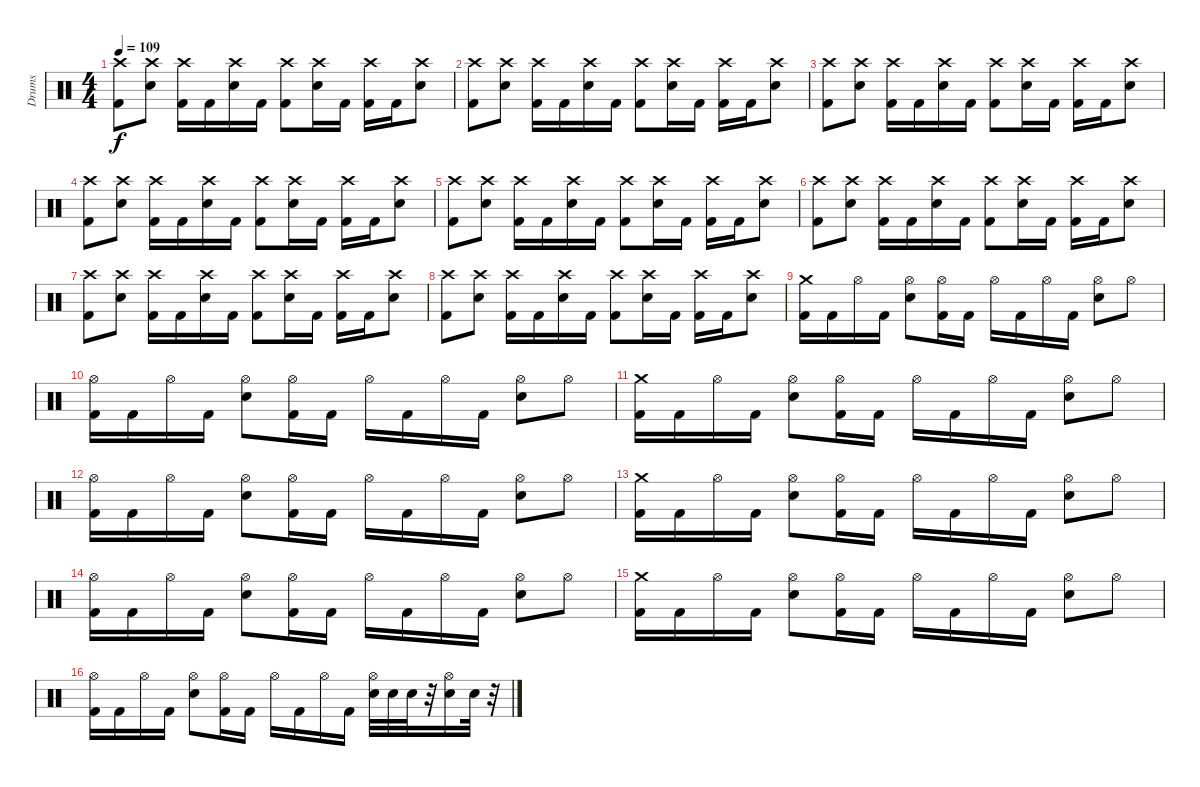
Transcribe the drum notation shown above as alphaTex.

\track ("Drums" "Drums") {instrument percussion}
\staff {score}
\articulation defaults
\ts (4 4)
\tempo 109
\clef neutral
\ks c
("Kick (hit) 2" "Crash high (hit)").8{dy f} ("Electric Snare (hit)" "Crash high (hit)").8 ("Kick (hit) 2" "Crash high (hit)").16 "Kick (hit) 2".16 ("Electric Snare (hit)" "Crash high (hit)").16 "Kick (hit) 2".16 ("Kick (hit) 2" "Crash high (hit)").8 ("Electric Snare (hit)" "Crash high (hit)").16 "Kick (hit) 2".16 ("Kick (hit) 2" "Crash high (hit)").16 "Kick (hit) 2".16 ("Electric Snare (hit)" "Crash high (hit)").8 |
("Kick (hit) 2" "Crash high (hit)").8 ("Electric Snare (hit)" "Crash high (hit)").8 ("Kick (hit) 2" "Crash high (hit)").16 "Kick (hit) 2".16 ("Electric Snare (hit)" "Crash high (hit)").16 "Kick (hit) 2".16 ("Kick (hit) 2" "Crash high (hit)").8 ("Electric Snare (hit)" "Crash high (hit)").16 "Kick (hit) 2".16 ("Kick (hit) 2" "Crash high (hit)").16 "Kick (hit) 2".16 ("Electric Snare (hit)" "Crash high (hit)").8 |
("Kick (hit) 2" "Crash high (hit)").8 ("Electric Snare (hit)" "Crash high (hit)").8 ("Kick (hit) 2" "Crash high (hit)").16 "Kick (hit) 2".16 ("Electric Snare (hit)" "Crash high (hit)").16 "Kick (hit) 2".16 ("Kick (hit) 2" "Crash high (hit)").8 ("Electric Snare (hit)" "Crash high (hit)").16 "Kick (hit) 2".16 ("Kick (hit) 2" "Crash high (hit)").16 "Kick (hit) 2".16 ("Electric Snare (hit)" "Crash high (hit)").8 |
("Kick (hit) 2" "Crash high (hit)").8 ("Electric Snare (hit)" "Crash high (hit)").8 ("Kick (hit) 2" "Crash high (hit)").16 "Kick (hit) 2".16 ("Electric Snare (hit)" "Crash high (hit)").16 "Kick (hit) 2".16 ("Kick (hit) 2" "Crash high (hit)").8 ("Electric Snare (hit)" "Crash high (hit)").16 "Kick (hit) 2".16 ("Kick (hit) 2" "Crash high (hit)").16 "Kick (hit) 2".16 ("Electric Snare (hit)" "Crash high (hit)").8 |
("Kick (hit) 2" "Crash high (hit)").8 ("Electric Snare (hit)" "Crash high (hit)").8 ("Kick (hit) 2" "Crash high (hit)").16 "Kick (hit) 2".16 ("Electric Snare (hit)" "Crash high (hit)").16 "Kick (hit) 2".16 ("Kick (hit) 2" "Crash high (hit)").8 ("Electric Snare (hit)" "Crash high (hit)").16 "Kick (hit) 2".16 ("Kick (hit) 2" "Crash high (hit)").16 "Kick (hit) 2".16 ("Electric Snare (hit)" "Crash high (hit)").8 |
("Kick (hit) 2" "Crash high (hit)").8 ("Electric Snare (hit)" "Crash high (hit)").8 ("Kick (hit) 2" "Crash high (hit)").16 "Kick (hit) 2".16 ("Electric Snare (hit)" "Crash high (hit)").16 "Kick (hit) 2".16 ("Kick (hit) 2" "Crash high (hit)").8 ("Electric Snare (hit)" "Crash high (hit)").16 "Kick (hit) 2".16 ("Kick (hit) 2" "Crash high (hit)").16 "Kick (hit) 2".16 ("Electric Snare (hit)" "Crash high (hit)").8 |
("Kick (hit) 2" "Crash high (hit)").8 ("Electric Snare (hit)" "Crash high (hit)").8 ("Kick (hit) 2" "Crash high (hit)").16 "Kick (hit) 2".16 ("Electric Snare (hit)" "Crash high (hit)").16 "Kick (hit) 2".16 ("Kick (hit) 2" "Crash high (hit)").8 ("Electric Snare (hit)" "Crash high (hit)").16 "Kick (hit) 2".16 ("Kick (hit) 2" "Crash high (hit)").16 "Kick (hit) 2".16 ("Electric Snare (hit)" "Crash high (hit)").8 |
("Kick (hit) 2" "Crash high (hit)").8 ("Electric Snare (hit)" "Crash high (hit)").8 ("Kick (hit) 2" "Crash high (hit)").16 "Kick (hit) 2".16 ("Electric Snare (hit)" "Crash high (hit)").16 "Kick (hit) 2".16 ("Kick (hit) 2" "Crash high (hit)").8 ("Electric Snare (hit)" "Crash high (hit)").16 "Kick (hit) 2".16 ("Kick (hit) 2" "Crash high (hit)").16 "Kick (hit) 2".16 ("Electric Snare (hit)" "Crash high (hit)").8 |
("Kick (hit) 2" "Crash medium (hit)").16 "Kick (hit) 2".16 "Hi-Hat (open)".16 "Kick (hit) 2".16 ("Electric Snare (hit)" "Hi-Hat (open)").8 ("Kick (hit) 2" "Hi-Hat (open)").16 "Kick (hit) 2".16 "Hi-Hat (open)".16 "Kick (hit) 2".16 "Hi-Hat (open)".16 "Kick (hit) 2".16 ("Electric Snare (hit)" "Hi-Hat (open)").8 "Hi-Hat (open)".8 |
("Kick (hit) 2" "Hi-Hat (open)").16 "Kick (hit) 2".16 "Hi-Hat (open)".16 "Kick (hit) 2".16 ("Electric Snare (hit)" "Hi-Hat (open)").8 ("Kick (hit) 2" "Hi-Hat (open)").16 "Kick (hit) 2".16 "Hi-Hat (open)".16 "Kick (hit) 2".16 "Hi-Hat (open)".16 "Kick (hit) 2".16 ("Electric Snare (hit)" "Hi-Hat (open)").8 "Hi-Hat (open)".8 |
("Kick (hit) 2" "Crash medium (hit)").16 "Kick (hit) 2".16 "Hi-Hat (open)".16 "Kick (hit) 2".16 ("Electric Snare (hit)" "Hi-Hat (open)").8 ("Kick (hit) 2" "Hi-Hat (open)").16 "Kick (hit) 2".16 "Hi-Hat (open)".16 "Kick (hit) 2".16 "Hi-Hat (open)".16 "Kick (hit) 2".16 ("Electric Snare (hit)" "Hi-Hat (open)").8 "Hi-Hat (open)".8 |
("Kick (hit) 2" "Hi-Hat (open)").16 "Kick (hit) 2".16 "Hi-Hat (open)".16 "Kick (hit) 2".16 ("Electric Snare (hit)" "Hi-Hat (open)").8 ("Kick (hit) 2" "Hi-Hat (open)").16 "Kick (hit) 2".16 "Hi-Hat (open)".16 "Kick (hit) 2".16 "Hi-Hat (open)".16 "Kick (hit) 2".16 ("Electric Snare (hit)" "Hi-Hat (open)").8 "Hi-Hat (open)".8 |
("Kick (hit) 2" "Crash medium (hit)").16 "Kick (hit) 2".16 "Hi-Hat (open)".16 "Kick (hit) 2".16 ("Electric Snare (hit)" "Hi-Hat (open)").8 ("Kick (hit) 2" "Hi-Hat (open)").16 "Kick (hit) 2".16 "Hi-Hat (open)".16 "Kick (hit) 2".16 "Hi-Hat (open)".16 "Kick (hit) 2".16 ("Electric Snare (hit)" "Hi-Hat (open)").8 "Hi-Hat (open)".8 |
("Kick (hit) 2" "Hi-Hat (open)").16 "Kick (hit) 2".16 "Hi-Hat (open)".16 "Kick (hit) 2".16 ("Electric Snare (hit)" "Hi-Hat (open)").8 ("Kick (hit) 2" "Hi-Hat (open)").16 "Kick (hit) 2".16 "Hi-Hat (open)".16 "Kick (hit) 2".16 "Hi-Hat (open)".16 "Kick (hit) 2".16 ("Electric Snare (hit)" "Hi-Hat (open)").8 "Hi-Hat (open)".8 |
("Kick (hit) 2" "Crash medium (hit)").16 "Kick (hit) 2".16 "Hi-Hat (open)".16 "Kick (hit) 2".16 ("Electric Snare (hit)" "Hi-Hat (open)").8 ("Kick (hit) 2" "Hi-Hat (open)").16 "Kick (hit) 2".16 "Hi-Hat (open)".16 "Kick (hit) 2".16 "Hi-Hat (open)".16 "Kick (hit) 2".16 ("Electric Snare (hit)" "Hi-Hat (open)").8 "Hi-Hat (open)".8 |
("Kick (hit) 2" "Hi-Hat (open)").16 "Kick (hit) 2".16 "Hi-Hat (open)".16 "Kick (hit) 2".16 ("Electric Snare (hit)" "Hi-Hat (open)").8 ("Kick (hit) 2" "Hi-Hat (open)").16 "Kick (hit) 2".16 "Hi-Hat (open)".16 "Kick (hit) 2".16 "Hi-Hat (open)".16 "Kick (hit) 2".16 ("Electric Snare (hit)" "Hi-Hat (open)").32 "Electric Snare (hit)".32 "Electric Snare (hit)".32 r.32 ("Electric Snare (hit)" "Hi-Hat (open)").16 "Electric Snare (hit)".32 r.32
